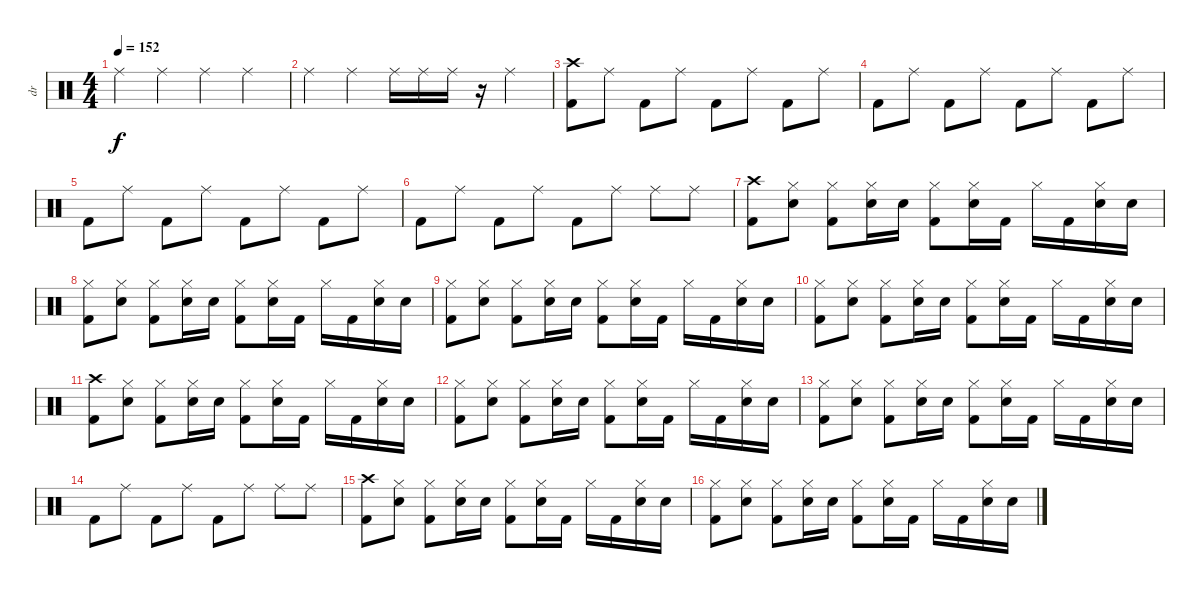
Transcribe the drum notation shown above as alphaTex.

\track ("dr" "dr") {instrument percussion}
\staff {score}
\articulation defaults
\ts (4 4)
\tempo 152
\clef neutral
\ks c "Ride (middle)".4{dy f} "Ride (middle)".4 "Ride (middle)".4 "Ride (middle)".4
|
"Ride (middle)".4 "Ride (middle)".4 "Ride (middle)".16 "Ride (middle)".16 "Ride (middle)".16 r.16 "Ride (middle)".4 |
("Crash high (hit)" "Kick (hit) 2").8 "Ride (middle)".8 "Kick (hit) 2".8 "Ride (middle)".8 "Kick (hit) 2".8 "Ride (middle)".8 "Kick (hit) 2".8 "Ride (middle)".8 |
"Kick (hit) 2".8 "Ride (middle)".8 "Kick (hit) 2".8 "Ride (middle)".8 "Kick (hit) 2".8 "Ride (middle)".8 "Kick (hit) 2".8 "Ride (middle)".8 |
"Kick (hit) 2".8 "Ride (middle)".8 "Kick (hit) 2".8 "Ride (middle)".8 "Kick (hit) 2".8 "Ride (middle)".8 "Kick (hit) 2".8 "Ride (middle)".8 |
"Kick (hit) 2".8 "Ride (middle)".8 "Kick (hit) 2".8 "Ride (middle)".8 "Kick (hit) 2".8 "Ride (middle)".8 "Ride (middle)".8 "Ride (middle)".8 |
("Crash high (hit)" "Kick (hit) 2").8 ("Hi-Hat (closed)" "Electric Snare (hit)").8 ("Hi-Hat (closed)" "Kick (hit) 2").8 ("Hi-Hat (closed)" "Electric Snare (hit)").16 "Electric Snare (hit)".16 ("Hi-Hat (closed)" "Kick (hit) 2").8 ("Hi-Hat (closed)" "Electric Snare (hit)").16 "Kick (hit) 2".16 "Hi-Hat (closed)".16 "Kick (hit) 2".16 ("Hi-Hat (closed)" "Electric Snare (hit)").16 "Electric Snare (hit)".16 |
("Hi-Hat (closed)" "Kick (hit) 2").8 ("Hi-Hat (closed)" "Electric Snare (hit)").8 ("Hi-Hat (closed)" "Kick (hit) 2").8 ("Hi-Hat (closed)" "Electric Snare (hit)").16 "Electric Snare (hit)".16 ("Hi-Hat (closed)" "Kick (hit) 2").8 ("Hi-Hat (closed)" "Electric Snare (hit)").16 "Kick (hit) 2".16 "Hi-Hat (closed)".16 "Kick (hit) 2".16 ("Hi-Hat (closed)" "Electric Snare (hit)").16 "Electric Snare (hit)".16 |
("Hi-Hat (closed)" "Kick (hit) 2").8 ("Hi-Hat (closed)" "Electric Snare (hit)").8 ("Hi-Hat (closed)" "Kick (hit) 2").8 ("Hi-Hat (closed)" "Electric Snare (hit)").16 "Electric Snare (hit)".16 ("Hi-Hat (closed)" "Kick (hit) 2").8 ("Hi-Hat (closed)" "Electric Snare (hit)").16 "Kick (hit) 2".16 "Hi-Hat (closed)".16 "Kick (hit) 2".16 ("Hi-Hat (closed)" "Electric Snare (hit)").16 "Electric Snare (hit)".16 |
("Hi-Hat (closed)" "Kick (hit) 2").8 ("Hi-Hat (closed)" "Electric Snare (hit)").8 ("Hi-Hat (closed)" "Kick (hit) 2").8 ("Hi-Hat (closed)" "Electric Snare (hit)").16 "Electric Snare (hit)".16 ("Hi-Hat (closed)" "Kick (hit) 2").8 ("Hi-Hat (closed)" "Electric Snare (hit)").16 "Kick (hit) 2".16 "Hi-Hat (closed)".16 "Kick (hit) 2".16 ("Hi-Hat (closed)" "Electric Snare (hit)").16 "Electric Snare (hit)".16 |
("Crash high (hit)" "Kick (hit) 2").8 ("Hi-Hat (closed)" "Electric Snare (hit)").8 ("Hi-Hat (closed)" "Kick (hit) 2").8 ("Hi-Hat (closed)" "Electric Snare (hit)").16 "Electric Snare (hit)".16 ("Hi-Hat (closed)" "Kick (hit) 2").8 ("Hi-Hat (closed)" "Electric Snare (hit)").16 "Kick (hit) 2".16 "Hi-Hat (closed)".16 "Kick (hit) 2".16 ("Hi-Hat (closed)" "Electric Snare (hit)").16 "Electric Snare (hit)".16 |
("Hi-Hat (closed)" "Kick (hit) 2").8 ("Hi-Hat (closed)" "Electric Snare (hit)").8 ("Hi-Hat (closed)" "Kick (hit) 2").8 ("Hi-Hat (closed)" "Electric Snare (hit)").16 "Electric Snare (hit)".16 ("Hi-Hat (closed)" "Kick (hit) 2").8 ("Hi-Hat (closed)" "Electric Snare (hit)").16 "Kick (hit) 2".16 "Hi-Hat (closed)".16 "Kick (hit) 2".16 ("Hi-Hat (closed)" "Electric Snare (hit)").16 "Electric Snare (hit)".16 |
("Hi-Hat (closed)" "Kick (hit) 2").8 ("Hi-Hat (closed)" "Electric Snare (hit)").8 ("Hi-Hat (closed)" "Kick (hit) 2").8 ("Hi-Hat (closed)" "Electric Snare (hit)").16 "Electric Snare (hit)".16 ("Hi-Hat (closed)" "Kick (hit) 2").8 ("Hi-Hat (closed)" "Electric Snare (hit)").16 "Kick (hit) 2".16 "Hi-Hat (closed)".16 "Kick (hit) 2".16 ("Hi-Hat (closed)" "Electric Snare (hit)").16 "Electric Snare (hit)".16 |
"Kick (hit) 2".8 "Ride (middle)".8 "Kick (hit) 2".8 "Ride (middle)".8 "Kick (hit) 2".8 "Ride (middle)".8 "Ride (middle)".8 "Ride (middle)".8 |
("Crash high (hit)" "Kick (hit) 2").8 ("Hi-Hat (closed)" "Electric Snare (hit)").8 ("Hi-Hat (closed)" "Kick (hit) 2").8 ("Hi-Hat (closed)" "Electric Snare (hit)").16 "Electric Snare (hit)".16 ("Hi-Hat (closed)" "Kick (hit) 2").8 ("Hi-Hat (closed)" "Electric Snare (hit)").16 "Kick (hit) 2".16 "Hi-Hat (closed)".16 "Kick (hit) 2".16 ("Hi-Hat (closed)" "Electric Snare (hit)").16 "Electric Snare (hit)".16 |
("Hi-Hat (closed)" "Kick (hit) 2").8 ("Hi-Hat (closed)" "Electric Snare (hit)").8 ("Hi-Hat (closed)" "Kick (hit) 2").8 ("Hi-Hat (closed)" "Electric Snare (hit)").16 "Electric Snare (hit)".16 ("Hi-Hat (closed)" "Kick (hit) 2").8 ("Hi-Hat (closed)" "Electric Snare (hit)").16 "Kick (hit) 2".16 "Hi-Hat (closed)".16 "Kick (hit) 2".16 ("Hi-Hat (closed)" "Electric Snare (hit)").16 "Electric Snare (hit)".16
